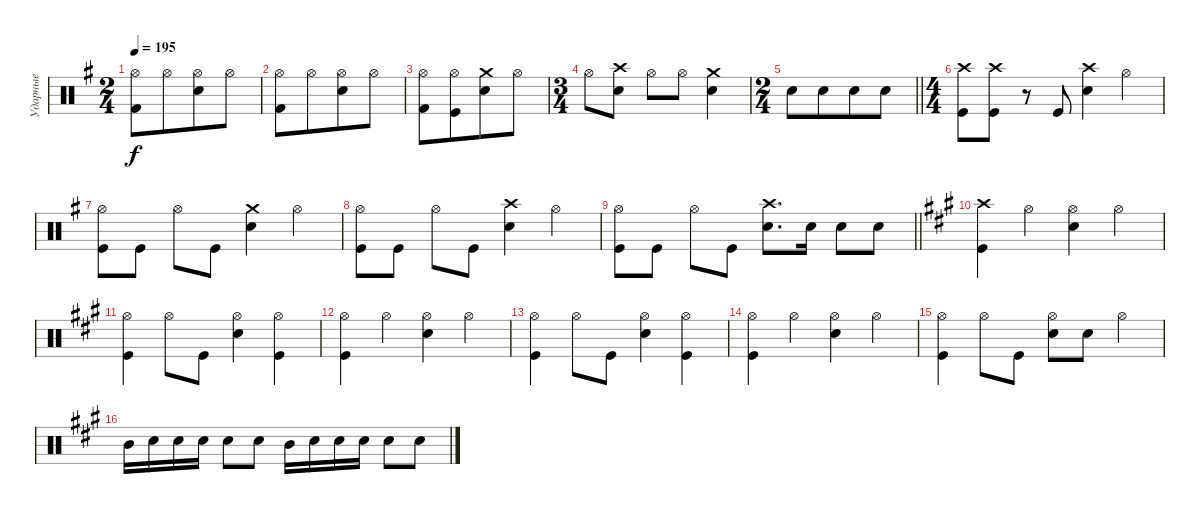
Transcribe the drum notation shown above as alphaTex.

\track ("Ударные" "Ударные") {instrument percussion}
\staff {score}
\articulation defaults
\ts (2 4)
\tempo 195
\clef neutral
\ks eminor
("Kick (hit) 2" "Hi-Hat (open)").8{dy f} "Hi-Hat (open)".8{beam merge} ("Snare (hit) 2" "Hi-Hat (open)").8 "Hi-Hat (open)".8 |
("Kick (hit) 2" "Hi-Hat (open)").8 "Hi-Hat (open)".8{beam merge} ("Snare (hit) 2" "Hi-Hat (open)").8 "Hi-Hat (open)".8 |
("Kick (hit) 2" "Hi-Hat (open)").8 ("Hi-Hat (open)" "Kick (hit)").8{beam merge} ("Snare (hit) 2" "Crash medium (hit)").8 "Hi-Hat (open)".8 |
\ts (3 4)
"Hi-Hat (open)".8 ("Snare (hit) 2" "Crash high (hit)").8 "Hi-Hat (open)".8 "Hi-Hat (open)".8 ("Snare (hit) 2" "Crash medium (hit)").4 |
\ts (2 4)
\barLineRight lightlight "Snare (hit) 2".8 "Snare (hit) 2".8{beam merge} "Snare (hit) 2".8 "Snare (hit) 2".8
|
\ts (4 4)
\section ("" "")
("Kick (hit)" "Crash high (hit)").8 ("Kick (hit)" "Crash high (hit)").8 r.8 "Kick (hit)".8 ("Snare (hit) 2" "Crash high (hit)").4 "Hi-Hat (open)".4 |
("Hi-Hat (open)" "Kick (hit)").8 "Kick (hit)".8 "Hi-Hat (open)".8 "Kick (hit)".8 ("Snare (hit) 2" "Crash medium (hit)").4 "Hi-Hat (open)".4 |
("Hi-Hat (open)" "Kick (hit)").8 "Kick (hit)".8 "Hi-Hat (open)".8 "Kick (hit)".8 ("Snare (hit) 2" "Crash high (hit)").4 "Hi-Hat (open)".4 |
\barLineRight lightlight
("Hi-Hat (open)" "Kick (hit)").8 "Kick (hit)".8 "Hi-Hat (open)".8 "Kick (hit)".8 ("Snare (hit) 2" "Crash high (hit)").8{d} "Snare (hit) 2".16 "Snare (hit) 2".8 "Snare (hit) 2".8 |
\section ("" "")
\ks f#minor
("Kick (hit)" "Crash high (hit)").4 "Hi-Hat (open)".4 ("Snare (hit) 2" "Hi-Hat (open)").4 "Hi-Hat (open)".4 |
("Kick (hit)" "Hi-Hat (open)").4 "Hi-Hat (open)".8 "Kick (hit)".8 ("Snare (hit) 2" "Hi-Hat (open)").4 ("Kick (hit)" "Hi-Hat (open)").4 |
("Kick (hit)" "Hi-Hat (open)").4 "Hi-Hat (open)".4 ("Snare (hit) 2" "Hi-Hat (open)").4 "Hi-Hat (open)".4 |
("Kick (hit)" "Hi-Hat (open)").4 "Hi-Hat (open)".8 "Kick (hit)".8 ("Snare (hit) 2" "Hi-Hat (open)").4 ("Kick (hit)" "Hi-Hat (open)").4 |
("Kick (hit)" "Hi-Hat (open)").4 "Hi-Hat (open)".4 ("Snare (hit) 2" "Hi-Hat (open)").4 "Hi-Hat (open)".4 |
("Kick (hit)" "Hi-Hat (open)").4 "Hi-Hat (open)".8 "Kick (hit)".8 ("Snare (hit) 2" "Hi-Hat (open)").8 "Snare (hit) 2".8 "Hi-Hat (open)".4 |
"Mid Tom (hit)".16 "Snare (hit) 2".16 "Snare (hit) 2".16 "Snare (hit) 2".16 "Snare (hit) 2".8 "Snare (hit) 2".8 "Mid Tom (hit)".16 "Snare (hit) 2".16 "Snare (hit) 2".16 "Snare (hit) 2".16 "Snare (hit) 2".8 "Snare (hit) 2".8
